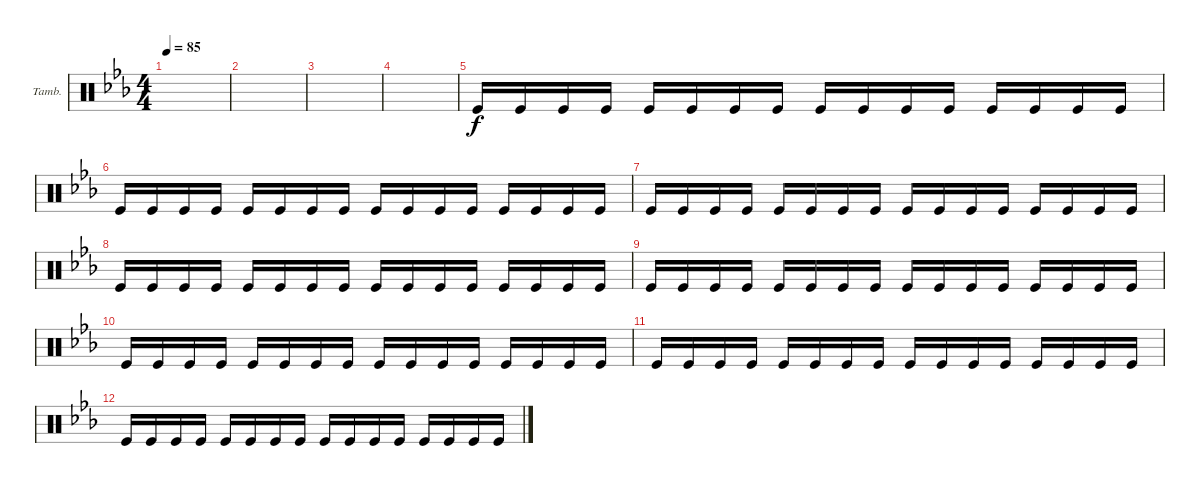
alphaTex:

\defaultSystemsLayout 4
\bracketExtendMode groupsimilarinstruments
\firstSystemTrackNameOrientation horizontal
\otherSystemsTrackNameOrientation horizontal
\track ("Tambourine" "Tamb.") {instrument percussion}
\staff {score}
\articulation defaults
\ts (4 4)
\scale
0.508202
\tempo 85
\accidentals auto
\clef neutral
\ottava regular
\simile none
\ks eb
|
\scale
0.49162 |
\scale
0.513554 |
\scale
0.487079 |
\scale
0.476471 "Kick (hit)".16 "Kick (hit)".16 "Kick (hit)".16 "Kick (hit)".16 "Kick (hit)".16 "Kick (hit)".16 "Kick (hit)".16 "Kick (hit)".16 "Kick (hit)".16 "Kick (hit)".16 "Kick (hit)".16 "Kick (hit)".16 "Kick (hit)".16 "Kick (hit)".16 "Kick (hit)".16 "Kick (hit)".16 |
\scale
0.523779 "Kick (hit)".16 "Kick (hit)".16 "Kick (hit)".16 "Kick (hit)".16 "Kick (hit)".16 "Kick (hit)".16 "Kick (hit)".16 "Kick (hit)".16 "Kick (hit)".16 "Kick (hit)".16 "Kick (hit)".16 "Kick (hit)".16 "Kick (hit)".16 "Kick (hit)".16 "Kick (hit)".16 "Kick (hit)".16 |
"Kick (hit)".16 "Kick (hit)".16 "Kick (hit)".16 "Kick (hit)".16 "Kick (hit)".16 "Kick (hit)".16 "Kick (hit)".16 "Kick (hit)".16 "Kick (hit)".16 "Kick (hit)".16 "Kick (hit)".16 "Kick (hit)".16 "Kick (hit)".16 "Kick (hit)".16 "Kick (hit)".16 "Kick (hit)".16 |
"Kick (hit)".16 "Kick (hit)".16 "Kick (hit)".16 "Kick (hit)".16 "Kick (hit)".16 "Kick (hit)".16 "Kick (hit)".16 "Kick (hit)".16 "Kick (hit)".16 "Kick (hit)".16 "Kick (hit)".16 "Kick (hit)".16 "Kick (hit)".16 "Kick (hit)".16 "Kick (hit)".16 "Kick (hit)".16 |
"Kick (hit)".16 "Kick (hit)".16 "Kick (hit)".16 "Kick (hit)".16 "Kick (hit)".16 "Kick (hit)".16 "Kick (hit)".16 "Kick (hit)".16 "Kick (hit)".16 "Kick (hit)".16 "Kick (hit)".16 "Kick (hit)".16 "Kick (hit)".16 "Kick (hit)".16 "Kick (hit)".16 "Kick (hit)".16 |
"Kick (hit)".16 "Kick (hit)".16 "Kick (hit)".16 "Kick (hit)".16 "Kick (hit)".16 "Kick (hit)".16 "Kick (hit)".16 "Kick (hit)".16 "Kick (hit)".16 "Kick (hit)".16 "Kick (hit)".16 "Kick (hit)".16 "Kick (hit)".16 "Kick (hit)".16 "Kick (hit)".16 "Kick (hit)".16 |
"Kick (hit)".16 "Kick (hit)".16 "Kick (hit)".16 "Kick (hit)".16 "Kick (hit)".16 "Kick (hit)".16 "Kick (hit)".16 "Kick (hit)".16 "Kick (hit)".16 "Kick (hit)".16 "Kick (hit)".16 "Kick (hit)".16 "Kick (hit)".16 "Kick (hit)".16 "Kick (hit)".16 "Kick (hit)".16 |
"Kick (hit)".16 "Kick (hit)".16 "Kick (hit)".16 "Kick (hit)".16 "Kick (hit)".16 "Kick (hit)".16 "Kick (hit)".16 "Kick (hit)".16 "Kick (hit)".16 "Kick (hit)".16 "Kick (hit)".16 "Kick (hit)".16 "Kick (hit)".16 "Kick (hit)".16 "Kick (hit)".16 "Kick (hit)".16
